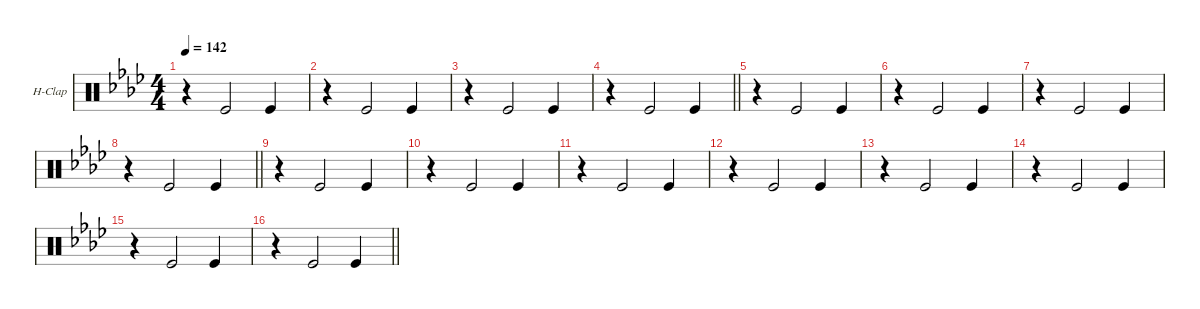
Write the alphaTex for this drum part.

\defaultSystemsLayout 4
\hideDynamics
\bracketExtendMode groupsimilarinstruments
\firstSystemTrackNameOrientation horizontal
\otherSystemsTrackNameOrientation horizontal
\track ("Hand Clap" "H-Clap") {multiBarRest instrument percussion}
\staff {score}
\articulation defaults
\ts (4 4)
\beaming (8 4 4)
\tempo 142
\clef neutral
\ks ab
r.4{dy fff} "Kick (hit)".2 "Kick (hit)".4 |
r.4 "Kick (hit)".2 "Kick (hit)".4 |
r.4 "Kick (hit)".2 "Kick (hit)".4 |
\barLineRight lightlight
r.4 "Kick (hit)".2 "Kick (hit)".4 |
r.4 "Kick (hit)".2 "Kick (hit)".4 |
r.4 "Kick (hit)".2 "Kick (hit)".4 |
r.4 "Kick (hit)".2 "Kick (hit)".4 |
\barLineRight lightlight
r.4 "Kick (hit)".2 "Kick (hit)".4 |
r.4 "Kick (hit)".2 "Kick (hit)".4 |
r.4 "Kick (hit)".2 "Kick (hit)".4 |
r.4 "Kick (hit)".2 "Kick (hit)".4 |
r.4 "Kick (hit)".2 "Kick (hit)".4 |
r.4 "Kick (hit)".2 "Kick (hit)".4 |
r.4 "Kick (hit)".2 "Kick (hit)".4 |
r.4 "Kick (hit)".2 "Kick (hit)".4 |
\barLineRight lightlight
r.4 "Kick (hit)".2 "Kick (hit)".4
